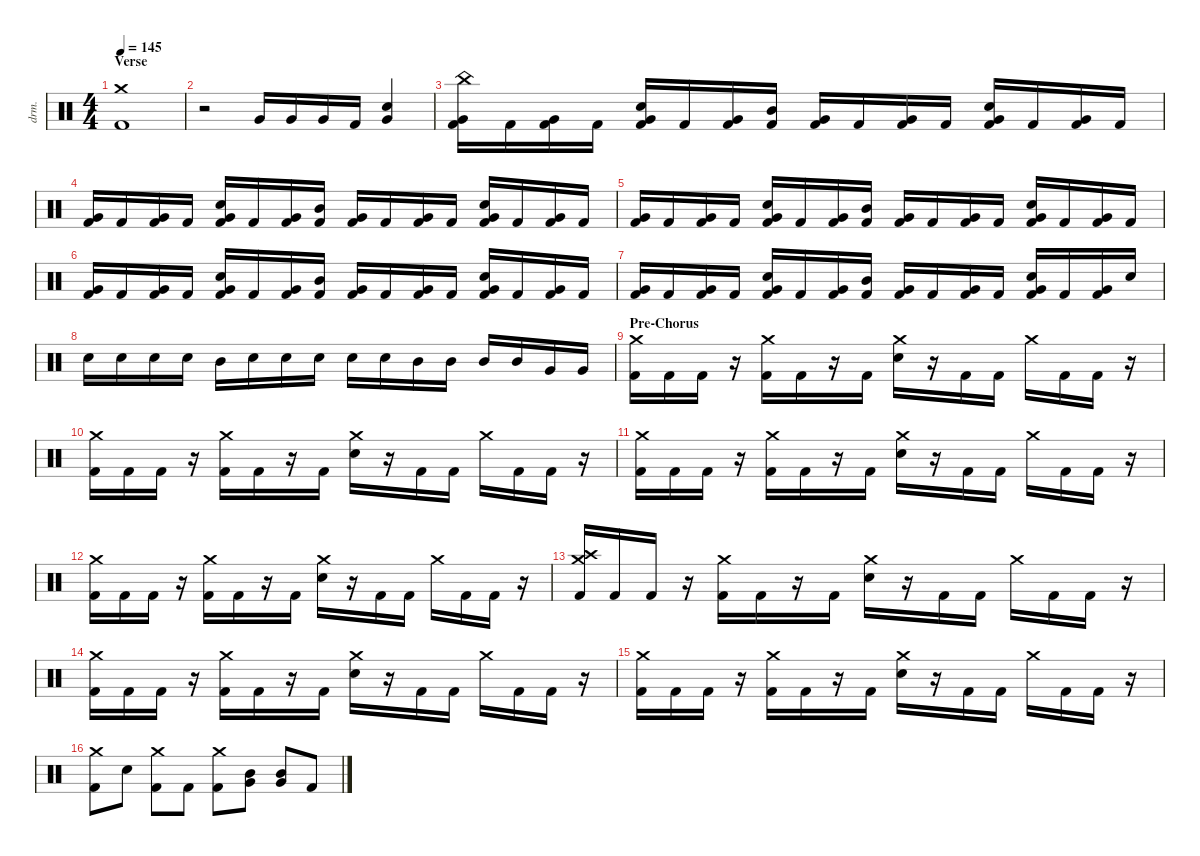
\defaultSystemsLayout 4
\hideDynamics
\bracketExtendMode nobrackets
\track ("Drums - Mario" "drm.") {instrument percussion}
\staff {score}
\articulation defaults
\ts (4 4)
\section ("" "Verse")
\tempo 145
\clef neutral
\ks c
("Kick (hit) 2" "Crash medium (hit)").1{dy ff beam Down} |
r.2{beam Down} "Very Low Tom (hit)".16{beam Up} "Very Low Tom (hit)".16{beam Up} "Very Low Tom (hit)".16{beam Up} "Kick (hit) 2".16{beam Up} ("Snare (hit) 2" "Very Low Tom (hit)").4{beam Up} |
("Kick (hit) 2" "Very Low Tom (hit)" "China (hit)").16{beam Down} "Kick (hit) 2".16{beam Down} ("Kick (hit) 2" "Very Low Tom (hit)").16{beam Down} "Kick (hit) 2".16{beam Down} ("Kick (hit) 2" "Snare (hit) 2" "Very Low Tom (hit)").16{beam Up} "Kick (hit) 2".16{beam Up} ("Kick (hit) 2" "Very Low Tom (hit)").16{beam Up} ("Kick (hit) 2" "Mid Tom (hit)").16{beam Up} ("Kick (hit) 2" "Very Low Tom (hit)").16{beam Up} "Kick (hit) 2".16{beam Up} ("Kick (hit) 2" "Very Low Tom (hit)").16{beam Up} "Kick (hit) 2".16{beam Up} ("Kick (hit) 2" "Snare (hit) 2" "Very Low Tom (hit)").16{beam Up} "Kick (hit) 2".16{beam Up} ("Kick (hit) 2" "Very Low Tom (hit)").16{beam Up} "Kick (hit) 2".16{beam Up} |
("Kick (hit) 2" "Very Low Tom (hit)").16{beam Up} "Kick (hit) 2".16{beam Up} ("Kick (hit) 2" "Very Low Tom (hit)").16{beam Up} "Kick (hit) 2".16{beam Up} ("Kick (hit) 2" "Snare (hit) 2" "Very Low Tom (hit)").16{beam Up} "Kick (hit) 2".16{beam Up} ("Kick (hit) 2" "Very Low Tom (hit)").16{beam Up} ("Kick (hit) 2" "Mid Tom (hit)").16{beam Up} ("Kick (hit) 2" "Very Low Tom (hit)").16{beam Up} "Kick (hit) 2".16{beam Up} ("Kick (hit) 2" "Very Low Tom (hit)").16{beam Up} "Kick (hit) 2".16{beam Up} ("Kick (hit) 2" "Snare (hit) 2" "Very Low Tom (hit)").16{beam Up} "Kick (hit) 2".16{beam Up} ("Kick (hit) 2" "Very Low Tom (hit)").16{beam Up} "Kick (hit) 2".16{beam Up} |
("Kick (hit) 2" "Very Low Tom (hit)").16{beam Up} "Kick (hit) 2".16{beam Up} ("Kick (hit) 2" "Very Low Tom (hit)").16{beam Up} "Kick (hit) 2".16{beam Up} ("Kick (hit) 2" "Snare (hit) 2" "Very Low Tom (hit)").16{beam Up} "Kick (hit) 2".16{beam Up} ("Kick (hit) 2" "Very Low Tom (hit)").16{beam Up} ("Kick (hit) 2" "Mid Tom (hit)").16{beam Up} ("Kick (hit) 2" "Very Low Tom (hit)").16{beam Up} "Kick (hit) 2".16{beam Up} ("Kick (hit) 2" "Very Low Tom (hit)").16{beam Up} "Kick (hit) 2".16{beam Up} ("Kick (hit) 2" "Snare (hit) 2" "Very Low Tom (hit)").16{beam Up} "Kick (hit) 2".16{beam Up} ("Kick (hit) 2" "Very Low Tom (hit)").16{beam Up} "Kick (hit) 2".16{beam Up} |
("Kick (hit) 2" "Very Low Tom (hit)").16{beam Up} "Kick (hit) 2".16{beam Up} ("Kick (hit) 2" "Very Low Tom (hit)").16{beam Up} "Kick (hit) 2".16{beam Up} ("Kick (hit) 2" "Snare (hit) 2" "Very Low Tom (hit)").16{beam Up} "Kick (hit) 2".16{beam Up} ("Kick (hit) 2" "Very Low Tom (hit)").16{beam Up} ("Kick (hit) 2" "Mid Tom (hit)").16{beam Up} ("Kick (hit) 2" "Very Low Tom (hit)").16{beam Up} "Kick (hit) 2".16{beam Up} ("Kick (hit) 2" "Very Low Tom (hit)").16{beam Up} "Kick (hit) 2".16{beam Up} ("Kick (hit) 2" "Snare (hit) 2" "Very Low Tom (hit)").16{beam Up} "Kick (hit) 2".16{beam Up} ("Kick (hit) 2" "Very Low Tom (hit)").16{beam Up} "Kick (hit) 2".16{beam Up} |
("Kick (hit) 2" "Very Low Tom (hit)").16{beam Up} "Kick (hit) 2".16{beam Up} ("Kick (hit) 2" "Very Low Tom (hit)").16{beam Up} "Kick (hit) 2".16{beam Up} ("Kick (hit) 2" "Snare (hit) 2" "Very Low Tom (hit)").16{beam Up} "Kick (hit) 2".16{beam Up} ("Kick (hit) 2" "Very Low Tom (hit)").16{beam Up} ("Kick (hit) 2" "Mid Tom (hit)").16{beam Up} ("Kick (hit) 2" "Very Low Tom (hit)").16{beam Up} "Kick (hit) 2".16{beam Up} ("Kick (hit) 2" "Very Low Tom (hit)").16{beam Up} "Kick (hit) 2".16{beam Up} ("Kick (hit) 2" "Snare (hit) 2" "Very Low Tom (hit)").16{beam Up} "Kick (hit) 2".16{beam Up} ("Kick (hit) 2" "Very Low Tom (hit)").16{beam Up} "Snare (hit) 2".16{beam Up} |
"Snare (hit) 2".16{beam Down} "Snare (hit) 2".16{beam Down} "Snare (hit) 2".16{beam Down} "Snare (hit) 2".16{beam Down} "Mid Tom (hit)".16{beam Down} "Snare (hit) 2".16{beam Down} "Snare (hit) 2".16{beam Down} "Snare (hit) 2".16{beam Down} "Snare (hit) 2".16{beam Down} "Snare (hit) 2".16{beam Down} "Mid Tom (hit)".16{beam Down} "Mid Tom (hit)".16{beam Down} "Mid Tom (hit)".16{beam Up} "Mid Tom (hit)".16{beam Up} "Very Low Tom (hit)".16{beam Up} "Very Low Tom (hit)".16{beam Up} |
\section ("" "Pre-Chorus")
("Kick (hit) 2" "Crash medium (hit)").16{beam Down} "Kick (hit) 2".16{beam Down} "Kick (hit) 2".16{beam Down} r.16{beam Down} ("Kick (hit) 2" "Crash medium (hit)").16{beam Down} "Kick (hit) 2".16{beam Down} r.16{beam Down} "Kick (hit) 2".16{beam Down} ("Crash medium (hit)" "Snare (hit) 2").16{beam Down} r.16{beam Down} "Kick (hit) 2".16{beam Down} "Kick (hit) 2".16{beam Down} "Crash medium (hit)".16{beam Down} "Kick (hit) 2".16{beam Down} "Kick (hit) 2".16{beam Down} r.16{beam Down} |
("Kick (hit) 2" "Crash medium (hit)").16{beam Down} "Kick (hit) 2".16{beam Down} "Kick (hit) 2".16{beam Down} r.16{beam Down} ("Kick (hit) 2" "Crash medium (hit)").16{beam Down} "Kick (hit) 2".16{beam Down} r.16{beam Down} "Kick (hit) 2".16{beam Down} ("Crash medium (hit)" "Snare (hit) 2").16{beam Down} r.16{beam Down} "Kick (hit) 2".16{beam Down} "Kick (hit) 2".16{beam Down} "Crash medium (hit)".16{beam Down} "Kick (hit) 2".16{beam Down} "Kick (hit) 2".16{beam Down} r.16{beam Down} |
("Kick (hit) 2" "Crash medium (hit)").16{beam Down} "Kick (hit) 2".16{beam Down} "Kick (hit) 2".16{beam Down} r.16{beam Down} ("Kick (hit) 2" "Crash medium (hit)").16{beam Down} "Kick (hit) 2".16{beam Down} r.16{beam Down} "Kick (hit) 2".16{beam Down} ("Crash medium (hit)" "Snare (hit) 2").16{beam Down} r.16{beam Down} "Kick (hit) 2".16{beam Down} "Kick (hit) 2".16{beam Down} "Crash medium (hit)".16{beam Down} "Kick (hit) 2".16{beam Down} "Kick (hit) 2".16{beam Down} r.16{beam Down} |
("Kick (hit) 2" "Crash medium (hit)").16{beam Down} "Kick (hit) 2".16{beam Down} "Kick (hit) 2".16{beam Down} r.16{beam Down} ("Kick (hit) 2" "Crash medium (hit)").16{beam Down} "Kick (hit) 2".16{beam Down} r.16{beam Down} "Kick (hit) 2".16{beam Down} ("Crash medium (hit)" "Snare (hit) 2").16{beam Down} r.16{beam Down} "Kick (hit) 2".16{beam Down} "Kick (hit) 2".16{beam Down} "Crash medium (hit)".16{beam Down} "Kick (hit) 2".16{beam Down} "Kick (hit) 2".16{beam Down} r.16{beam Down} |
("Kick (hit) 2" "Crash medium (hit)" "Crash high (hit)").16{beam Up} "Kick (hit) 2".16{beam Up} "Kick (hit) 2".16{beam Up} r.16{beam Down} ("Kick (hit) 2" "Crash medium (hit)").16{beam Down} "Kick (hit) 2".16{beam Down} r.16{beam Down} "Kick (hit) 2".16{beam Down} ("Crash medium (hit)" "Snare (hit) 2").16{beam Down} r.16{beam Down} "Kick (hit) 2".16{beam Down} "Kick (hit) 2".16{beam Down} "Crash medium (hit)".16{beam Down} "Kick (hit) 2".16{beam Down} "Kick (hit) 2".16{beam Down} r.16{beam Down} |
("Kick (hit) 2" "Crash medium (hit)").16{beam Down} "Kick (hit) 2".16{beam Down} "Kick (hit) 2".16{beam Down} r.16{beam Down} ("Kick (hit) 2" "Crash medium (hit)").16{beam Down} "Kick (hit) 2".16{beam Down} r.16{beam Down} "Kick (hit) 2".16{beam Down} ("Crash medium (hit)" "Snare (hit) 2").16{beam Down} r.16{beam Down} "Kick (hit) 2".16{beam Down} "Kick (hit) 2".16{beam Down} "Crash medium (hit)".16{beam Down} "Kick (hit) 2".16{beam Down} "Kick (hit) 2".16{beam Down} r.16{beam Down} |
("Kick (hit) 2" "Crash medium (hit)").16{beam Down} "Kick (hit) 2".16{beam Down} "Kick (hit) 2".16{beam Down} r.16{beam Down} ("Kick (hit) 2" "Crash medium (hit)").16{beam Down} "Kick (hit) 2".16{beam Down} r.16{beam Down} "Kick (hit) 2".16{beam Down} ("Crash medium (hit)" "Snare (hit) 2").16{beam Down} r.16{beam Down} "Kick (hit) 2".16{beam Down} "Kick (hit) 2".16{beam Down} "Crash medium (hit)".16{beam Down} "Kick (hit) 2".16{beam Down} "Kick (hit) 2".16{beam Down} r.16{beam Down} |
("Kick (hit) 2" "Crash medium (hit)").8{beam Down} "Snare (hit) 2".8{beam Down} ("Kick (hit) 2" "Crash medium (hit)").8{beam Down} "Kick (hit) 2".8{beam Down} ("Kick (hit) 2" "Crash medium (hit)").8{beam Down} ("Very Low Tom (hit)" "Mid Tom (hit)").8{beam Down} ("Very Low Tom (hit)" "Mid Tom (hit)").8{beam Up} "Kick (hit) 2".8{beam Up}
